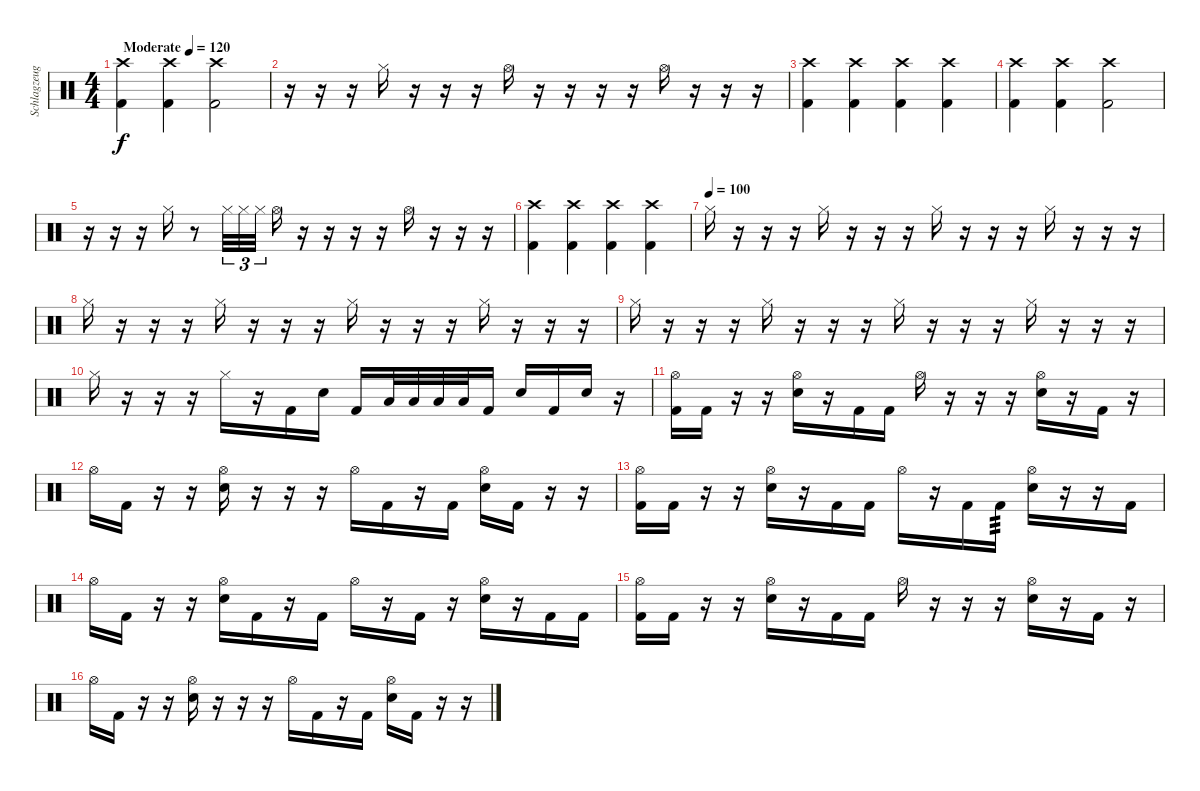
\track ("Schlagzeug" "Schlagzeug") {instrument percussion}
\staff {score}
\articulation defaults
\ts (4 4)
\tempo (120 "Moderate")
\clef neutral
\ks c
("Crash high (hit)" "Kick (hit) 2").4{dy f} ("Crash high (hit)" "Kick (hit) 2").4 ("Crash high (hit)" "Kick (hit) 2").2 |
r.16 r.16 r.16 "Hi-Hat (closed)".16 r.16 r.16 r.16 "Hi-Hat (open)".16 r.16 r.16 r.16 r.16 "Hi-Hat (open)".16 r.16 r.16 r.16 |
("Crash high (hit)" "Kick (hit) 2").4 ("Crash high (hit)" "Kick (hit) 2").4 ("Crash high (hit)" "Kick (hit) 2").4 ("Crash high (hit)" "Kick (hit) 2").4 |
("Crash high (hit)" "Kick (hit) 2").4 ("Crash high (hit)" "Kick (hit) 2").4 ("Crash high (hit)" "Kick (hit) 2").2 |
r.16 r.16 r.16 "Hi-Hat (closed)".16 r.8 "Hi-Hat (closed)".32{tu (3 2)} "Hi-Hat (closed)".32{tu (3 2)} "Hi-Hat (closed)".32{tu (3 2) beam splitsecondary} "Hi-Hat (open)".16 r.16 r.16 r.16 r.16 "Hi-Hat (open)".16 r.16 r.16 r.16 |
("Crash high (hit)" "Kick (hit) 2").4 ("Crash high (hit)" "Kick (hit) 2").4 ("Crash high (hit)" "Kick (hit) 2").4 ("Crash high (hit)" "Kick (hit) 2").4 |
\tempo (100)
"Hi-Hat (closed)".16 r.16 r.16 r.16 "Hi-Hat (closed)".16 r.16 r.16 r.16 "Hi-Hat (closed)".16 r.16 r.16 r.16 "Hi-Hat (closed)".16 r.16 r.16 r.16 |
"Hi-Hat (closed)".16 r.16 r.16 r.16 "Hi-Hat (closed)".16 r.16 r.16 r.16 "Hi-Hat (closed)".16 r.16 r.16 r.16 "Hi-Hat (closed)".16 r.16 r.16 r.16 |
"Hi-Hat (closed)".16 r.16 r.16 r.16 "Hi-Hat (closed)".16 r.16 r.16 r.16 "Hi-Hat (closed)".16 r.16 r.16 r.16 "Hi-Hat (closed)".16 r.16 r.16 r.16 |
"Hi-Hat (closed)".16 r.16 r.16 r.16 "Hi-Hat (closed)".16 r.16 "Kick (hit) 2".16 "Snare (hit) 2".16 "Kick (hit) 2".16 "Low Tom (hit)".32 "Low Tom (hit)".32 "Low Tom (hit)".32 "Low Tom (hit)".32 "Kick (hit) 2".16 "Snare (hit) 2".16 "Kick (hit) 2".16 "Snare (hit) 2".16 r.16 |
("Hi-Hat (open)" "Kick (hit) 2").16 "Kick (hit) 2".16 r.16 r.16 ("Hi-Hat (open)" "Snare (hit) 2").16 r.16 "Kick (hit) 2".16 "Kick (hit) 2".16 "Hi-Hat (open)".16 r.16 r.16 r.16 ("Hi-Hat (open)" "Snare (hit) 2").16 r.16 "Kick (hit) 2".16 r.16 |
"Hi-Hat (open)".16 "Kick (hit) 2".16 r.16 r.16 ("Hi-Hat (open)" "Snare (hit) 2").16 r.16 r.16 r.16 "Hi-Hat (open)".16 "Kick (hit) 2".16 r.16 "Kick (hit) 2".16 ("Hi-Hat (open)" "Snare (hit) 2").16 "Kick (hit) 2".16 r.16 r.16 |
("Hi-Hat (open)" "Kick (hit) 2").16 "Kick (hit) 2".16 r.16 r.16 ("Hi-Hat (open)" "Snare (hit) 2").16 r.16 "Kick (hit) 2".16 "Kick (hit) 2".16 "Hi-Hat (open)".16 r.16 "Kick (hit) 2".16 "Kick (hit) 2".16{tp 3} ("Hi-Hat (open)" "Snare (hit) 2").16 r.16 r.16 "Kick (hit) 2".16 |
"Hi-Hat (open)".16 "Kick (hit) 2".16 r.16 r.16 ("Hi-Hat (open)" "Snare (hit) 2").16 "Kick (hit) 2".16 r.16 "Kick (hit) 2".16 "Hi-Hat (open)".16 r.16 "Kick (hit) 2".16 r.16 ("Hi-Hat (open)" "Snare (hit) 2").16 r.16 "Kick (hit) 2".16 "Kick (hit) 2".16 |
("Hi-Hat (open)" "Kick (hit) 2").16 "Kick (hit) 2".16 r.16 r.16 ("Hi-Hat (open)" "Snare (hit) 2").16 r.16 "Kick (hit) 2".16 "Kick (hit) 2".16 "Hi-Hat (open)".16 r.16 r.16 r.16 ("Hi-Hat (open)" "Snare (hit) 2").16 r.16 "Kick (hit) 2".16 r.16 |
"Hi-Hat (open)".16 "Kick (hit) 2".16 r.16 r.16 ("Hi-Hat (open)" "Snare (hit) 2").16 r.16 r.16 r.16 "Hi-Hat (open)".16 "Kick (hit) 2".16 r.16 "Kick (hit) 2".16 ("Hi-Hat (open)" "Snare (hit) 2").16 "Kick (hit) 2".16 r.16 r.16
